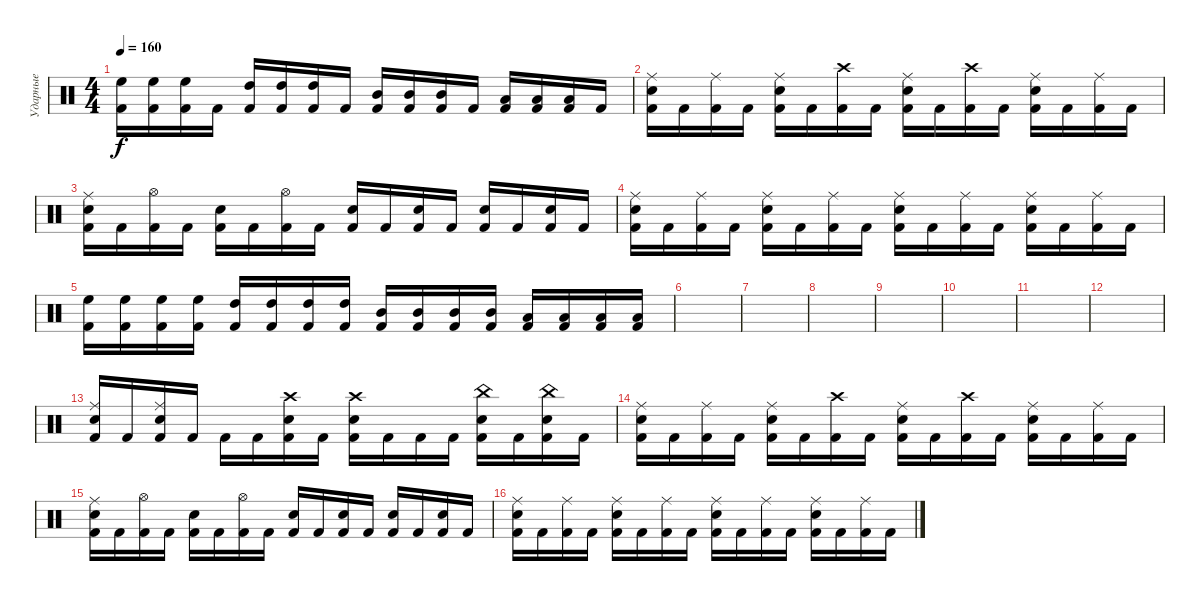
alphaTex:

\track ("Ударные" "Ударные") {instrument percussion}
\staff {score}
\articulation defaults
\ts (4 4)
\tempo 160
\clef neutral
\ks c
("Kick (hit) 2" "High Floor Tom (hit)").16{dy f} ("Kick (hit) 2" "High Floor Tom (hit)").16 ("Kick (hit) 2" "High Floor Tom (hit)").16 "Kick (hit) 2".16 ("Kick (hit) 2" "High Tom (hit)").16 ("Kick (hit) 2" "High Tom (hit)").16 ("Kick (hit) 2" "High Tom (hit)").16 "Kick (hit) 2".16 ("Kick (hit) 2" "Mid Tom (hit)").16 ("Kick (hit) 2" "Mid Tom (hit)").16 ("Kick (hit) 2" "Mid Tom (hit)").16 "Kick (hit) 2".16 ("Kick (hit) 2" "Low Tom (hit)").16 ("Kick (hit) 2" "Low Tom (hit)").16 ("Kick (hit) 2" "Low Tom (hit)").16 "Kick (hit) 2".16 |
("Kick (hit) 2" "Ride (middle)" "Snare (hit) 2").16 "Kick (hit) 2".16 ("Kick (hit) 2" "Ride (middle)").16 "Kick (hit) 2".16 ("Kick (hit) 2" "Ride (middle)" "Snare (hit) 2").16 "Kick (hit) 2".16 ("Kick (hit) 2" "Crash high (hit)").16 "Kick (hit) 2".16 ("Kick (hit) 2" "Ride (middle)" "Snare (hit) 2").16 "Kick (hit) 2".16 ("Kick (hit) 2" "Crash high (hit)").16 "Kick (hit) 2".16 ("Kick (hit) 2" "Ride (middle)" "Snare (hit) 2").16 "Kick (hit) 2".16 ("Kick (hit) 2" "Ride (middle)").16 "Kick (hit) 2".16 |
("Kick (hit) 2" "Ride (middle)" "Snare (hit) 2").16 "Kick (hit) 2".16 ("Kick (hit) 2" "Hi-Hat (open)").16 "Kick (hit) 2".16 ("Kick (hit) 2" "Snare (hit) 2").16 "Kick (hit) 2".16 ("Kick (hit) 2" "Hi-Hat (open)").16 "Kick (hit) 2".16 ("Kick (hit) 2" "Snare (hit) 2").16 "Kick (hit) 2".16 ("Kick (hit) 2" "Snare (hit) 2").16 "Kick (hit) 2".16 ("Kick (hit) 2" "Snare (hit) 2").16 "Kick (hit) 2".16 ("Kick (hit) 2" "Snare (hit) 2").16 "Kick (hit) 2".16 |
("Kick (hit) 2" "Ride (middle)" "Snare (hit) 2").16 "Kick (hit) 2".16 ("Kick (hit) 2" "Ride (middle)").16 "Kick (hit) 2".16 ("Kick (hit) 2" "Ride (middle)" "Snare (hit) 2").16 "Kick (hit) 2".16 ("Kick (hit) 2" "Ride (middle)").16 "Kick (hit) 2".16 ("Kick (hit) 2" "Ride (middle)" "Snare (hit) 2").16 "Kick (hit) 2".16 ("Kick (hit) 2" "Ride (middle)").16 "Kick (hit) 2".16 ("Kick (hit) 2" "Ride (middle)" "Snare (hit) 2").16 "Kick (hit) 2".16 ("Kick (hit) 2" "Ride (middle)").16 "Kick (hit) 2".16 |
("Kick (hit) 2" "High Floor Tom (hit)").16 ("Kick (hit) 2" "High Floor Tom (hit)").16 ("Kick (hit) 2" "High Floor Tom (hit)").16 ("Kick (hit) 2" "High Floor Tom (hit)").16 ("Kick (hit) 2" "High Tom (hit)").16 ("Kick (hit) 2" "High Tom (hit)").16 ("Kick (hit) 2" "High Tom (hit)").16 ("Kick (hit) 2" "High Tom (hit)").16 ("Kick (hit) 2" "Mid Tom (hit)").16 ("Kick (hit) 2" "Mid Tom (hit)").16 ("Kick (hit) 2" "Mid Tom (hit)").16 ("Kick (hit) 2" "Mid Tom (hit)").16 ("Kick (hit) 2" "Low Tom (hit)").16 ("Kick (hit) 2" "Low Tom (hit)").16 ("Kick (hit) 2" "Low Tom (hit)").16 ("Kick (hit) 2" "Low Tom (hit)").16 |
|
|
|
|
|
|
|
("Kick (hit) 2" "Snare (hit) 2" "Ride (middle)").16 "Kick (hit) 2".16 ("Kick (hit) 2" "Snare (hit) 2" "Ride (middle)").16 "Kick (hit) 2".16 "Kick (hit) 2".16 "Kick (hit) 2".16 ("Kick (hit) 2" "Snare (hit) 2" "Crash high (hit)").16 "Kick (hit) 2".16 ("Kick (hit) 2" "Snare (hit) 2" "Crash high (hit)").16 "Kick (hit) 2".16 "Kick (hit) 2".16 "Kick (hit) 2".16 ("Kick (hit) 2" "Snare (hit) 2" "China (hit)").16 "Kick (hit) 2".16 ("Kick (hit) 2" "Snare (hit) 2" "China (hit)").16 "Kick (hit) 2".16 |
("Kick (hit) 2" "Ride (middle)" "Snare (hit) 2").16 "Kick (hit) 2".16 ("Kick (hit) 2" "Ride (middle)").16 "Kick (hit) 2".16 ("Kick (hit) 2" "Ride (middle)" "Snare (hit) 2").16 "Kick (hit) 2".16 ("Kick (hit) 2" "Crash high (hit)").16 "Kick (hit) 2".16 ("Kick (hit) 2" "Ride (middle)" "Snare (hit) 2").16 "Kick (hit) 2".16 ("Kick (hit) 2" "Crash high (hit)").16 "Kick (hit) 2".16 ("Kick (hit) 2" "Ride (middle)" "Snare (hit) 2").16 "Kick (hit) 2".16 ("Kick (hit) 2" "Ride (middle)").16 "Kick (hit) 2".16 |
("Kick (hit) 2" "Ride (middle)" "Snare (hit) 2").16 "Kick (hit) 2".16 ("Kick (hit) 2" "Hi-Hat (open)").16 "Kick (hit) 2".16 ("Kick (hit) 2" "Snare (hit) 2").16 "Kick (hit) 2".16 ("Kick (hit) 2" "Hi-Hat (open)").16 "Kick (hit) 2".16 ("Kick (hit) 2" "Snare (hit) 2").16 "Kick (hit) 2".16 ("Kick (hit) 2" "Snare (hit) 2").16 "Kick (hit) 2".16 ("Kick (hit) 2" "Snare (hit) 2").16 "Kick (hit) 2".16 ("Kick (hit) 2" "Snare (hit) 2").16 "Kick (hit) 2".16 |
("Kick (hit) 2" "Ride (middle)" "Snare (hit) 2").16 "Kick (hit) 2".16 ("Kick (hit) 2" "Ride (middle)").16 "Kick (hit) 2".16 ("Kick (hit) 2" "Ride (middle)" "Snare (hit) 2").16 "Kick (hit) 2".16 ("Kick (hit) 2" "Ride (middle)").16 "Kick (hit) 2".16 ("Kick (hit) 2" "Ride (middle)" "Snare (hit) 2").16 "Kick (hit) 2".16 ("Kick (hit) 2" "Ride (middle)").16 "Kick (hit) 2".16 ("Kick (hit) 2" "Ride (middle)" "Snare (hit) 2").16 "Kick (hit) 2".16 ("Kick (hit) 2" "Ride (middle)").16 "Kick (hit) 2".16
